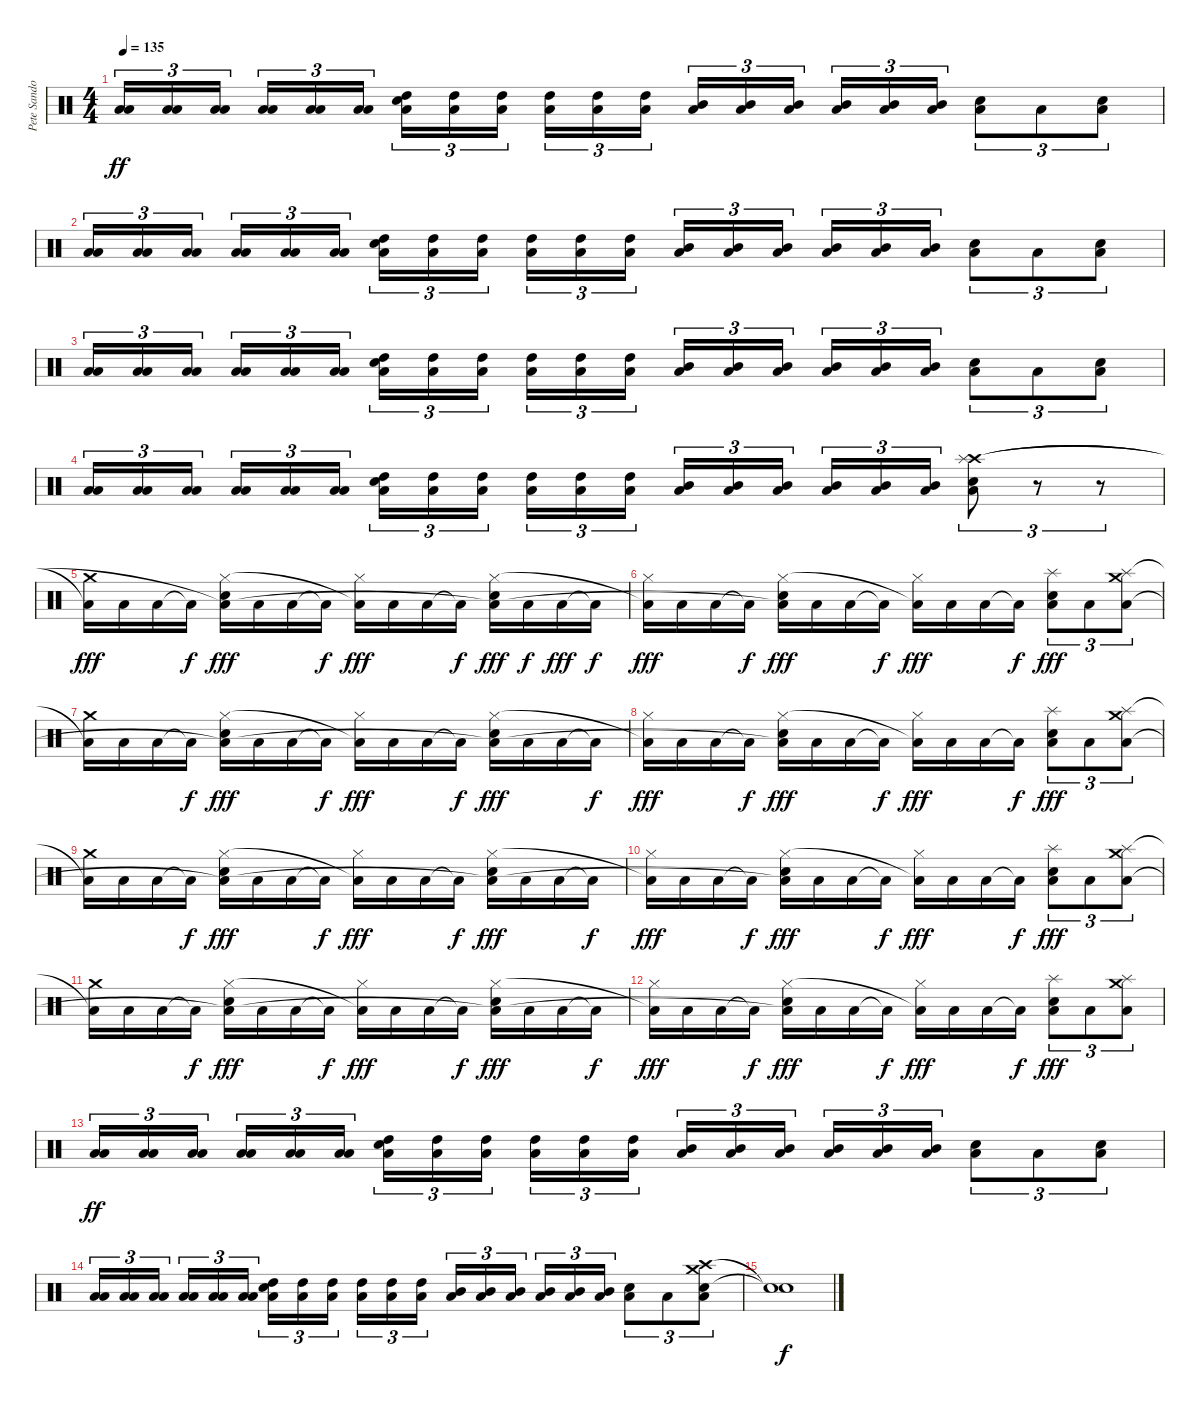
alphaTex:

\track ("Pete Sandoval" "Pete Sando") {instrument percussion}
\staff {score}
\articulation defaults
\ts (4 4)
\tempo 135
\clef neutral
\ks c
("Low Tom (hit)" "Low Floor Tom (hit)").16{tu (3 2) dy ff} ("Low Tom (hit)" "Low Floor Tom (hit)").16{tu (3 2)} ("Low Tom (hit)" "Low Floor Tom (hit)").16{tu (3 2) beam splitsecondary} ("Low Tom (hit)" "Low Floor Tom (hit)").16{tu (3 2)} ("Low Tom (hit)" "Low Floor Tom (hit)").16{tu (3 2)} ("Low Tom (hit)" "Low Floor Tom (hit)").16{tu (3 2)} ("Electric Snare (hit)" "High Tom (hit)" "Low Floor Tom (hit)").16{tu (3 2)} ("High Tom (hit)" "Low Floor Tom (hit)").16{tu (3 2)} ("High Tom (hit)" "Low Floor Tom (hit)").16{tu (3 2) beam splitsecondary} ("High Tom (hit)" "Low Floor Tom (hit)").16{tu (3 2)} ("High Tom (hit)" "Low Floor Tom (hit)").16{tu (3 2)} ("High Tom (hit)" "Low Floor Tom (hit)").16{tu (3 2)} ("Mid Tom (hit)" "Low Floor Tom (hit)").16{tu (3 2)} ("Mid Tom (hit)" "Low Floor Tom (hit)").16{tu (3 2)} ("Mid Tom (hit)" "Low Floor Tom (hit)").16{tu (3 2) beam splitsecondary} ("Mid Tom (hit)" "Low Floor Tom (hit)").16{tu (3 2)} ("Mid Tom (hit)" "Low Floor Tom (hit)").16{tu (3 2)} ("Mid Tom (hit)" "Low Floor Tom (hit)").16{tu (3 2)} ("Electric Snare (hit)" "Low Floor Tom (hit)").8{tu (3 2)} "Low Floor Tom (hit)".8{tu (3 2)} ("Electric Snare (hit)" "Low Floor Tom (hit)").8{tu (3 2)} |
("Low Tom (hit)" "Low Floor Tom (hit)").16{tu (3 2)} ("Low Tom (hit)" "Low Floor Tom (hit)").16{tu (3 2)} ("Low Tom (hit)" "Low Floor Tom (hit)").16{tu (3 2) beam splitsecondary} ("Low Tom (hit)" "Low Floor Tom (hit)").16{tu (3 2)} ("Low Tom (hit)" "Low Floor Tom (hit)").16{tu (3 2)} ("Low Tom (hit)" "Low Floor Tom (hit)").16{tu (3 2)} ("Electric Snare (hit)" "High Tom (hit)" "Low Floor Tom (hit)").16{tu (3 2)} ("High Tom (hit)" "Low Floor Tom (hit)").16{tu (3 2)} ("High Tom (hit)" "Low Floor Tom (hit)").16{tu (3 2) beam splitsecondary} ("High Tom (hit)" "Low Floor Tom (hit)").16{tu (3 2)} ("High Tom (hit)" "Low Floor Tom (hit)").16{tu (3 2)} ("High Tom (hit)" "Low Floor Tom (hit)").16{tu (3 2)} ("Mid Tom (hit)" "Low Floor Tom (hit)").16{tu (3 2)} ("Mid Tom (hit)" "Low Floor Tom (hit)").16{tu (3 2)} ("Mid Tom (hit)" "Low Floor Tom (hit)").16{tu (3 2) beam splitsecondary} ("Mid Tom (hit)" "Low Floor Tom (hit)").16{tu (3 2)} ("Mid Tom (hit)" "Low Floor Tom (hit)").16{tu (3 2)} ("Mid Tom (hit)" "Low Floor Tom (hit)").16{tu (3 2)} ("Electric Snare (hit)" "Low Floor Tom (hit)").8{tu (3 2)} "Low Floor Tom (hit)".8{tu (3 2)} ("Electric Snare (hit)" "Low Floor Tom (hit)").8{tu (3 2)} |
("Low Tom (hit)" "Low Floor Tom (hit)").16{tu (3 2)} ("Low Tom (hit)" "Low Floor Tom (hit)").16{tu (3 2)} ("Low Tom (hit)" "Low Floor Tom (hit)").16{tu (3 2) beam splitsecondary} ("Low Tom (hit)" "Low Floor Tom (hit)").16{tu (3 2)} ("Low Tom (hit)" "Low Floor Tom (hit)").16{tu (3 2)} ("Low Tom (hit)" "Low Floor Tom (hit)").16{tu (3 2)} ("Electric Snare (hit)" "High Tom (hit)" "Low Floor Tom (hit)").16{tu (3 2)} ("High Tom (hit)" "Low Floor Tom (hit)").16{tu (3 2)} ("High Tom (hit)" "Low Floor Tom (hit)").16{tu (3 2) beam splitsecondary} ("High Tom (hit)" "Low Floor Tom (hit)").16{tu (3 2)} ("High Tom (hit)" "Low Floor Tom (hit)").16{tu (3 2)} ("High Tom (hit)" "Low Floor Tom (hit)").16{tu (3 2)} ("Mid Tom (hit)" "Low Floor Tom (hit)").16{tu (3 2)} ("Mid Tom (hit)" "Low Floor Tom (hit)").16{tu (3 2)} ("Mid Tom (hit)" "Low Floor Tom (hit)").16{tu (3 2) beam splitsecondary} ("Mid Tom (hit)" "Low Floor Tom (hit)").16{tu (3 2)} ("Mid Tom (hit)" "Low Floor Tom (hit)").16{tu (3 2)} ("Mid Tom (hit)" "Low Floor Tom (hit)").16{tu (3 2)} ("Electric Snare (hit)" "Low Floor Tom (hit)").8{tu (3 2)} "Low Floor Tom (hit)".8{tu (3 2)} ("Electric Snare (hit)" "Low Floor Tom (hit)").8{tu (3 2)} |
("Low Tom (hit)" "Low Floor Tom (hit)").16{tu (3 2)} ("Low Tom (hit)" "Low Floor Tom (hit)").16{tu (3 2)} ("Low Tom (hit)" "Low Floor Tom (hit)").16{tu (3 2) beam splitsecondary} ("Low Tom (hit)" "Low Floor Tom (hit)").16{tu (3 2)} ("Low Tom (hit)" "Low Floor Tom (hit)").16{tu (3 2)} ("Low Tom (hit)" "Low Floor Tom (hit)").16{tu (3 2)} ("Electric Snare (hit)" "High Tom (hit)" "Low Floor Tom (hit)").16{tu (3 2)} ("High Tom (hit)" "Low Floor Tom (hit)").16{tu (3 2)} ("High Tom (hit)" "Low Floor Tom (hit)").16{tu (3 2) beam splitsecondary} ("High Tom (hit)" "Low Floor Tom (hit)").16{tu (3 2)} ("High Tom (hit)" "Low Floor Tom (hit)").16{tu (3 2)} ("High Tom (hit)" "Low Floor Tom (hit)").16{tu (3 2)} ("Mid Tom (hit)" "Low Floor Tom (hit)").16{tu (3 2)} ("Mid Tom (hit)" "Low Floor Tom (hit)").16{tu (3 2)} ("Mid Tom (hit)" "Low Floor Tom (hit)").16{tu (3 2) beam splitsecondary} ("Mid Tom (hit)" "Low Floor Tom (hit)").16{tu (3 2)} ("Mid Tom (hit)" "Low Floor Tom (hit)").16{tu (3 2)} ("Mid Tom (hit)" "Low Floor Tom (hit)").16{tu (3 2)} ("Electric Snare (hit)" "Crash high (hit)" "Splash (hit)" "Low Floor Tom (hit)").8{tu (3 2)} r.8{tu (3 2)} r.8{tu (3 2)} |
("Crash medium (hit)" "Low Floor Tom (hit)"{t}).16{dy fff} "Low Floor Tom (hit)".16 "Low Floor Tom (hit)".16 "Low Floor Tom (hit)"{t}.16{dy f} ("Electric Snare (hit)" "Hi-Hat (closed)" "Low Floor Tom (hit)"{t}).16{dy fff} "Low Floor Tom (hit)".16 "Low Floor Tom (hit)".16 "Low Floor Tom (hit)"{t}.16{dy f} ("Hi-Hat (closed)" "Low Floor Tom (hit)"{t}).16{dy fff} "Low Floor Tom (hit)".16 "Low Floor Tom (hit)".16 "Low Floor Tom (hit)"{t}.16{dy f} ("Electric Snare (hit)" "Hi-Hat (closed)" "Low Floor Tom (hit)"{t}).16{dy fff} "Low Floor Tom (hit)".16{dy f} "Low Floor Tom (hit)".16{dy fff} "Low Floor Tom (hit)"{t}.16{dy f} |
("Hi-Hat (closed)" "Low Floor Tom (hit)"{t}).16{dy fff} "Low Floor Tom (hit)".16 "Low Floor Tom (hit)".16 "Low Floor Tom (hit)"{t}.16{dy f} ("Electric Snare (hit)" "Hi-Hat (closed)" "Low Floor Tom (hit)"{t}).16{dy fff} "Low Floor Tom (hit)".16 "Low Floor Tom (hit)".16 "Low Floor Tom (hit)"{t}.16{dy f} ("Hi-Hat (closed)" "Low Floor Tom (hit)"{t}).16{dy fff} "Low Floor Tom (hit)".16 "Low Floor Tom (hit)".16 "Low Floor Tom (hit)"{t}.16{dy f} ("Electric Snare (hit)" "Splash (hit)" "Low Floor Tom (hit)").8{tu (3 2) dy fff} "Low Floor Tom (hit)".8{tu (3 2)} ("Crash medium (hit)" "Splash (hit)" "Low Floor Tom (hit)").8{tu (3 2)} |
("Crash medium (hit)" "Low Floor Tom (hit)"{t}).16 "Low Floor Tom (hit)".16 "Low Floor Tom (hit)".16 "Low Floor Tom (hit)"{t}.16{dy f} ("Electric Snare (hit)" "Hi-Hat (closed)" "Low Floor Tom (hit)"{t}).16{dy fff} "Low Floor Tom (hit)".16 "Low Floor Tom (hit)".16 "Low Floor Tom (hit)"{t}.16{dy f} ("Hi-Hat (closed)" "Low Floor Tom (hit)"{t}).16{dy fff} "Low Floor Tom (hit)".16 "Low Floor Tom (hit)".16 "Low Floor Tom (hit)"{t}.16{dy f} ("Electric Snare (hit)" "Hi-Hat (closed)" "Low Floor Tom (hit)"{t}).16{dy fff} "Low Floor Tom (hit)".16 "Low Floor Tom (hit)".16 "Low Floor Tom (hit)"{t}.16{dy f} |
("Hi-Hat (closed)" "Low Floor Tom (hit)"{t}).16{dy fff} "Low Floor Tom (hit)".16 "Low Floor Tom (hit)".16 "Low Floor Tom (hit)"{t}.16{dy f} ("Electric Snare (hit)" "Hi-Hat (closed)" "Low Floor Tom (hit)"{t}).16{dy fff} "Low Floor Tom (hit)".16 "Low Floor Tom (hit)".16 "Low Floor Tom (hit)"{t}.16{dy f} ("Hi-Hat (closed)" "Low Floor Tom (hit)"{t}).16{dy fff} "Low Floor Tom (hit)".16 "Low Floor Tom (hit)".16 "Low Floor Tom (hit)"{t}.16{dy f} ("Electric Snare (hit)" "Splash (hit)" "Low Floor Tom (hit)").8{tu (3 2) dy fff} "Low Floor Tom (hit)".8{tu (3 2)} ("Crash medium (hit)" "Splash (hit)" "Low Floor Tom (hit)").8{tu (3 2)} |
("Crash medium (hit)" "Low Floor Tom (hit)"{t}).16 "Low Floor Tom (hit)".16 "Low Floor Tom (hit)".16 "Low Floor Tom (hit)"{t}.16{dy f} ("Electric Snare (hit)" "Hi-Hat (closed)" "Low Floor Tom (hit)"{t}).16{dy fff} "Low Floor Tom (hit)".16 "Low Floor Tom (hit)".16 "Low Floor Tom (hit)"{t}.16{dy f} ("Hi-Hat (closed)" "Low Floor Tom (hit)"{t}).16{dy fff} "Low Floor Tom (hit)".16 "Low Floor Tom (hit)".16 "Low Floor Tom (hit)"{t}.16{dy f} ("Electric Snare (hit)" "Hi-Hat (closed)" "Low Floor Tom (hit)"{t}).16{dy fff} "Low Floor Tom (hit)".16 "Low Floor Tom (hit)".16 "Low Floor Tom (hit)"{t}.16{dy f} |
("Hi-Hat (closed)" "Low Floor Tom (hit)"{t}).16{dy fff} "Low Floor Tom (hit)".16 "Low Floor Tom (hit)".16 "Low Floor Tom (hit)"{t}.16{dy f} ("Electric Snare (hit)" "Hi-Hat (closed)" "Low Floor Tom (hit)"{t}).16{dy fff} "Low Floor Tom (hit)".16 "Low Floor Tom (hit)".16 "Low Floor Tom (hit)"{t}.16{dy f} ("Hi-Hat (closed)" "Low Floor Tom (hit)"{t}).16{dy fff} "Low Floor Tom (hit)".16 "Low Floor Tom (hit)".16 "Low Floor Tom (hit)"{t}.16{dy f} ("Electric Snare (hit)" "Splash (hit)" "Low Floor Tom (hit)").8{tu (3 2) dy fff} "Low Floor Tom (hit)".8{tu (3 2)} ("Crash medium (hit)" "Splash (hit)" "Low Floor Tom (hit)").8{tu (3 2)} |
("Crash medium (hit)" "Low Floor Tom (hit)"{t}).16 "Low Floor Tom (hit)".16 "Low Floor Tom (hit)".16 "Low Floor Tom (hit)"{t}.16{dy f} ("Electric Snare (hit)" "Hi-Hat (closed)" "Low Floor Tom (hit)"{t}).16{dy fff} "Low Floor Tom (hit)".16 "Low Floor Tom (hit)".16 "Low Floor Tom (hit)"{t}.16{dy f} ("Hi-Hat (closed)" "Low Floor Tom (hit)"{t}).16{dy fff} "Low Floor Tom (hit)".16 "Low Floor Tom (hit)".16 "Low Floor Tom (hit)"{t}.16{dy f} ("Electric Snare (hit)" "Hi-Hat (closed)" "Low Floor Tom (hit)"{t}).16{dy fff} "Low Floor Tom (hit)".16 "Low Floor Tom (hit)".16 "Low Floor Tom (hit)"{t}.16{dy f} |
("Hi-Hat (closed)" "Low Floor Tom (hit)"{t}).16{dy fff} "Low Floor Tom (hit)".16 "Low Floor Tom (hit)".16 "Low Floor Tom (hit)"{t}.16{dy f} ("Electric Snare (hit)" "Hi-Hat (closed)" "Low Floor Tom (hit)"{t}).16{dy fff} "Low Floor Tom (hit)".16 "Low Floor Tom (hit)".16 "Low Floor Tom (hit)"{t}.16{dy f} ("Hi-Hat (closed)" "Low Floor Tom (hit)"{t}).16{dy fff} "Low Floor Tom (hit)".16 "Low Floor Tom (hit)".16 "Low Floor Tom (hit)"{t}.16{dy f} ("Electric Snare (hit)" "Splash (hit)" "Low Floor Tom (hit)").8{tu (3 2) dy fff} "Low Floor Tom (hit)".8{tu (3 2)} ("Crash medium (hit)" "Splash (hit)" "Low Floor Tom (hit)").8{tu (3 2)} |
("Low Tom (hit)" "Low Floor Tom (hit)").16{tu (3 2) dy ff} ("Low Tom (hit)" "Low Floor Tom (hit)").16{tu (3 2)} ("Low Tom (hit)" "Low Floor Tom (hit)").16{tu (3 2) beam splitsecondary} ("Low Tom (hit)" "Low Floor Tom (hit)").16{tu (3 2)} ("Low Tom (hit)" "Low Floor Tom (hit)").16{tu (3 2)} ("Low Tom (hit)" "Low Floor Tom (hit)").16{tu (3 2)} ("Electric Snare (hit)" "High Tom (hit)" "Low Floor Tom (hit)").16{tu (3 2)} ("High Tom (hit)" "Low Floor Tom (hit)").16{tu (3 2)} ("High Tom (hit)" "Low Floor Tom (hit)").16{tu (3 2) beam splitsecondary} ("High Tom (hit)" "Low Floor Tom (hit)").16{tu (3 2)} ("High Tom (hit)" "Low Floor Tom (hit)").16{tu (3 2)} ("High Tom (hit)" "Low Floor Tom (hit)").16{tu (3 2)} ("Mid Tom (hit)" "Low Floor Tom (hit)").16{tu (3 2)} ("Mid Tom (hit)" "Low Floor Tom (hit)").16{tu (3 2)} ("Mid Tom (hit)" "Low Floor Tom (hit)").16{tu (3 2) beam splitsecondary} ("Mid Tom (hit)" "Low Floor Tom (hit)").16{tu (3 2)} ("Mid Tom (hit)" "Low Floor Tom (hit)").16{tu (3 2)} ("Mid Tom (hit)" "Low Floor Tom (hit)").16{tu (3 2)} ("Electric Snare (hit)" "Low Floor Tom (hit)").8{tu (3 2)} "Low Floor Tom (hit)".8{tu (3 2)} ("Electric Snare (hit)" "Low Floor Tom (hit)").8{tu (3 2)} |
("Low Tom (hit)" "Low Floor Tom (hit)").16{tu (3 2)} ("Low Tom (hit)" "Low Floor Tom (hit)").16{tu (3 2)} ("Low Tom (hit)" "Low Floor Tom (hit)").16{tu (3 2) beam splitsecondary} ("Low Tom (hit)" "Low Floor Tom (hit)").16{tu (3 2)} ("Low Tom (hit)" "Low Floor Tom (hit)").16{tu (3 2)} ("Low Tom (hit)" "Low Floor Tom (hit)").16{tu (3 2)} ("Electric Snare (hit)" "High Tom (hit)" "Low Floor Tom (hit)").16{tu (3 2)} ("High Tom (hit)" "Low Floor Tom (hit)").16{tu (3 2)} ("High Tom (hit)" "Low Floor Tom (hit)").16{tu (3 2) beam splitsecondary} ("High Tom (hit)" "Low Floor Tom (hit)").16{tu (3 2)} ("High Tom (hit)" "Low Floor Tom (hit)").16{tu (3 2)} ("High Tom (hit)" "Low Floor Tom (hit)").16{tu (3 2)} ("Mid Tom (hit)" "Low Floor Tom (hit)").16{tu (3 2)} ("Mid Tom (hit)" "Low Floor Tom (hit)").16{tu (3 2)} ("Mid Tom (hit)" "Low Floor Tom (hit)").16{tu (3 2) beam splitsecondary} ("Mid Tom (hit)" "Low Floor Tom (hit)").16{tu (3 2)} ("Mid Tom (hit)" "Low Floor Tom (hit)").16{tu (3 2)} ("Mid Tom (hit)" "Low Floor Tom (hit)").16{tu (3 2)} ("Electric Snare (hit)" "Low Floor Tom (hit)").8{tu (3 2)} "Low Floor Tom (hit)".8{tu (3 2)} ("Electric Snare (hit)" "Crash high (hit)" "Crash medium (hit)" "Low Floor Tom (hit)").8{tu (3 2)} |
("Snare (hit)"{t} "Snare (hit)"{t}).1{dy f}
